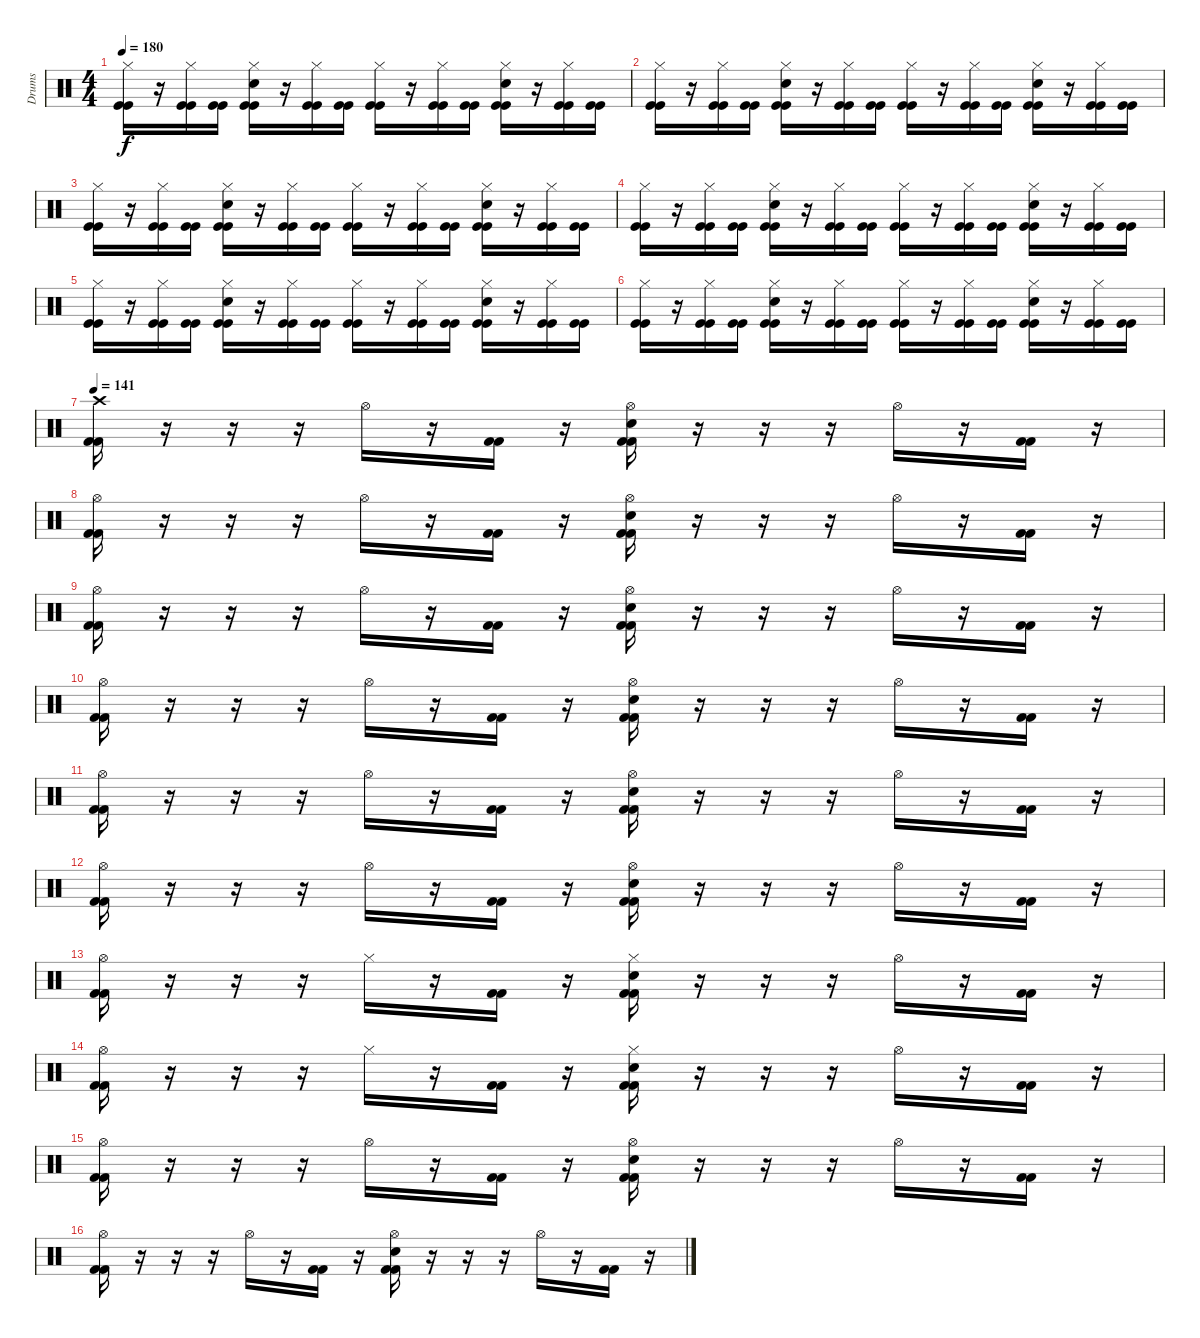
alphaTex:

\track ("Drums" "Drums") {instrument percussion}
\staff {score}
\articulation defaults
\ts (4 4)
\tempo 180
\clef neutral
\ks c
("Hi-Hat (closed)" "Kick (hit)" "Kick (hit)").16{dy f} r.16 ("Hi-Hat (closed)" "Kick (hit)" "Kick (hit)").16 ("Kick (hit)" "Kick (hit)").16 ("Snare (hit) 2" "Hi-Hat (closed)" "Kick (hit)" "Kick (hit)").16 r.16 ("Hi-Hat (closed)" "Kick (hit)" "Kick (hit)").16 ("Kick (hit)" "Kick (hit)").16 ("Hi-Hat (closed)" "Kick (hit)" "Kick (hit)").16 r.16 ("Hi-Hat (closed)" "Kick (hit)" "Kick (hit)").16 ("Kick (hit)" "Kick (hit)").16 ("Snare (hit) 2" "Hi-Hat (closed)" "Kick (hit)" "Kick (hit)").16 r.16 ("Hi-Hat (closed)" "Kick (hit)" "Kick (hit)").16 ("Kick (hit)" "Kick (hit)").16 |
("Hi-Hat (closed)" "Kick (hit)" "Kick (hit)").16 r.16 ("Hi-Hat (closed)" "Kick (hit)" "Kick (hit)").16 ("Kick (hit)" "Kick (hit)").16 ("Snare (hit) 2" "Hi-Hat (closed)" "Kick (hit)" "Kick (hit)").16 r.16 ("Hi-Hat (closed)" "Kick (hit)" "Kick (hit)").16 ("Kick (hit)" "Kick (hit)").16 ("Hi-Hat (closed)" "Kick (hit)" "Kick (hit)").16 r.16 ("Hi-Hat (closed)" "Kick (hit)" "Kick (hit)").16 ("Kick (hit)" "Kick (hit)").16 ("Snare (hit) 2" "Hi-Hat (closed)" "Kick (hit)" "Kick (hit)").16 r.16 ("Hi-Hat (closed)" "Kick (hit)" "Kick (hit)").16 ("Kick (hit)" "Kick (hit)").16 |
("Hi-Hat (closed)" "Kick (hit)" "Kick (hit)").16 r.16 ("Hi-Hat (closed)" "Kick (hit)" "Kick (hit)").16 ("Kick (hit)" "Kick (hit)").16 ("Snare (hit) 2" "Hi-Hat (closed)" "Kick (hit)" "Kick (hit)").16 r.16 ("Hi-Hat (closed)" "Kick (hit)" "Kick (hit)").16 ("Kick (hit)" "Kick (hit)").16 ("Hi-Hat (closed)" "Kick (hit)" "Kick (hit)").16 r.16 ("Hi-Hat (closed)" "Kick (hit)" "Kick (hit)").16 ("Kick (hit)" "Kick (hit)").16 ("Snare (hit) 2" "Hi-Hat (closed)" "Kick (hit)" "Kick (hit)").16 r.16 ("Hi-Hat (closed)" "Kick (hit)" "Kick (hit)").16 ("Kick (hit)" "Kick (hit)").16 |
("Hi-Hat (closed)" "Kick (hit)" "Kick (hit)").16 r.16 ("Hi-Hat (closed)" "Kick (hit)" "Kick (hit)").16 ("Kick (hit)" "Kick (hit)").16 ("Snare (hit) 2" "Hi-Hat (closed)" "Kick (hit)" "Kick (hit)").16 r.16 ("Hi-Hat (closed)" "Kick (hit)" "Kick (hit)").16 ("Kick (hit)" "Kick (hit)").16 ("Hi-Hat (closed)" "Kick (hit)" "Kick (hit)").16 r.16 ("Hi-Hat (closed)" "Kick (hit)" "Kick (hit)").16 ("Kick (hit)" "Kick (hit)").16 ("Snare (hit) 2" "Hi-Hat (closed)" "Kick (hit)" "Kick (hit)").16 r.16 ("Hi-Hat (closed)" "Kick (hit)" "Kick (hit)").16 ("Kick (hit)" "Kick (hit)").16 |
("Hi-Hat (closed)" "Kick (hit)" "Kick (hit)").16 r.16 ("Hi-Hat (closed)" "Kick (hit)" "Kick (hit)").16 ("Kick (hit)" "Kick (hit)").16 ("Snare (hit) 2" "Hi-Hat (closed)" "Kick (hit)" "Kick (hit)").16 r.16 ("Hi-Hat (closed)" "Kick (hit)" "Kick (hit)").16 ("Kick (hit)" "Kick (hit)").16 ("Hi-Hat (closed)" "Kick (hit)" "Kick (hit)").16 r.16 ("Hi-Hat (closed)" "Kick (hit)" "Kick (hit)").16 ("Kick (hit)" "Kick (hit)").16 ("Snare (hit) 2" "Hi-Hat (closed)" "Kick (hit)" "Kick (hit)").16 r.16 ("Hi-Hat (closed)" "Kick (hit)" "Kick (hit)").16 ("Kick (hit)" "Kick (hit)").16 |
("Hi-Hat (closed)" "Kick (hit)" "Kick (hit)").16 r.16 ("Hi-Hat (closed)" "Kick (hit)" "Kick (hit)").16 ("Kick (hit)" "Kick (hit)").16 ("Snare (hit) 2" "Hi-Hat (closed)" "Kick (hit)" "Kick (hit)").16 r.16 ("Hi-Hat (closed)" "Kick (hit)" "Kick (hit)").16 ("Kick (hit)" "Kick (hit)").16 ("Hi-Hat (closed)" "Kick (hit)" "Kick (hit)").16 r.16 ("Hi-Hat (closed)" "Kick (hit)" "Kick (hit)").16 ("Kick (hit)" "Kick (hit)").16 ("Snare (hit) 2" "Hi-Hat (closed)" "Kick (hit)" "Kick (hit)").16 r.16 ("Hi-Hat (closed)" "Kick (hit)" "Kick (hit)").16 ("Kick (hit)" "Kick (hit)").16 |
\tempo 141
("Crash high (hit)" "Kick (hit) 2" "Kick (hit) 2").16 r.16 r.16 r.16 "Hi-Hat (open)".16 r.16 ("Kick (hit) 2" "Kick (hit) 2").16 r.16 ("Hi-Hat (open)" "Snare (hit) 2" "Kick (hit) 2" "Kick (hit) 2").16 r.16 r.16 r.16 "Hi-Hat (open)".16 r.16 ("Kick (hit) 2" "Kick (hit) 2").16 r.16 |
("Hi-Hat (open)" "Kick (hit) 2" "Kick (hit) 2").16 r.16 r.16 r.16 "Hi-Hat (open)".16 r.16 ("Kick (hit) 2" "Kick (hit) 2").16 r.16 ("Hi-Hat (open)" "Snare (hit) 2" "Kick (hit) 2" "Kick (hit) 2").16 r.16 r.16 r.16 "Hi-Hat (open)".16 r.16 ("Kick (hit) 2" "Kick (hit) 2").16 r.16 |
("Hi-Hat (open)" "Kick (hit) 2" "Kick (hit) 2").16 r.16 r.16 r.16 "Hi-Hat (open)".16 r.16 ("Kick (hit) 2" "Kick (hit) 2").16 r.16 ("Hi-Hat (open)" "Snare (hit) 2" "Kick (hit) 2" "Kick (hit) 2").16 r.16 r.16 r.16 "Hi-Hat (open)".16 r.16 ("Kick (hit) 2" "Kick (hit) 2").16 r.16 |
("Hi-Hat (open)" "Kick (hit) 2" "Kick (hit) 2").16 r.16 r.16 r.16 "Hi-Hat (open)".16 r.16 ("Kick (hit) 2" "Kick (hit) 2").16 r.16 ("Hi-Hat (open)" "Snare (hit) 2" "Kick (hit) 2" "Kick (hit) 2").16 r.16 r.16 r.16 "Hi-Hat (open)".16 r.16 ("Kick (hit) 2" "Kick (hit) 2").16 r.16 |
("Hi-Hat (open)" "Kick (hit) 2" "Kick (hit) 2").16 r.16 r.16 r.16 "Hi-Hat (open)".16 r.16 ("Kick (hit) 2" "Kick (hit) 2").16 r.16 ("Hi-Hat (open)" "Snare (hit) 2" "Kick (hit) 2" "Kick (hit) 2").16 r.16 r.16 r.16 "Hi-Hat (open)".16 r.16 ("Kick (hit) 2" "Kick (hit) 2").16 r.16 |
("Hi-Hat (open)" "Kick (hit) 2" "Kick (hit) 2").16 r.16 r.16 r.16 "Hi-Hat (open)".16 r.16 ("Kick (hit) 2" "Kick (hit) 2").16 r.16 ("Hi-Hat (open)" "Snare (hit) 2" "Kick (hit) 2" "Kick (hit) 2").16 r.16 r.16 r.16 "Hi-Hat (open)".16 r.16 ("Kick (hit) 2" "Kick (hit) 2").16 r.16 |
("Hi-Hat (open)" "Kick (hit) 2" "Kick (hit) 2").16 r.16 r.16 r.16 "Hi-Hat (closed)".16 r.16 ("Kick (hit) 2" "Kick (hit) 2").16 r.16 ("Hi-Hat (closed)" "Snare (hit) 2" "Kick (hit) 2" "Kick (hit) 2").16 r.16 r.16 r.16 "Hi-Hat (open)".16 r.16 ("Kick (hit) 2" "Kick (hit) 2").16 r.16 |
("Hi-Hat (open)" "Kick (hit) 2" "Kick (hit) 2").16 r.16 r.16 r.16 "Hi-Hat (closed)".16 r.16 ("Kick (hit) 2" "Kick (hit) 2").16 r.16 ("Hi-Hat (closed)" "Snare (hit) 2" "Kick (hit) 2" "Kick (hit) 2").16 r.16 r.16 r.16 "Hi-Hat (open)".16 r.16 ("Kick (hit) 2" "Kick (hit) 2").16 r.16 |
("Hi-Hat (open)" "Kick (hit) 2" "Kick (hit) 2").16 r.16 r.16 r.16 "Hi-Hat (open)".16 r.16 ("Kick (hit) 2" "Kick (hit) 2").16 r.16 ("Hi-Hat (open)" "Snare (hit) 2" "Kick (hit) 2" "Kick (hit) 2").16 r.16 r.16 r.16 "Hi-Hat (open)".16 r.16 ("Kick (hit) 2" "Kick (hit) 2").16 r.16 |
("Hi-Hat (open)" "Kick (hit) 2" "Kick (hit) 2").16 r.16 r.16 r.16 "Hi-Hat (open)".16 r.16 ("Kick (hit) 2" "Kick (hit) 2").16 r.16 ("Hi-Hat (open)" "Snare (hit) 2" "Kick (hit) 2" "Kick (hit) 2").16 r.16 r.16 r.16 "Hi-Hat (open)".16 r.16 ("Kick (hit) 2" "Kick (hit) 2").16 r.16
